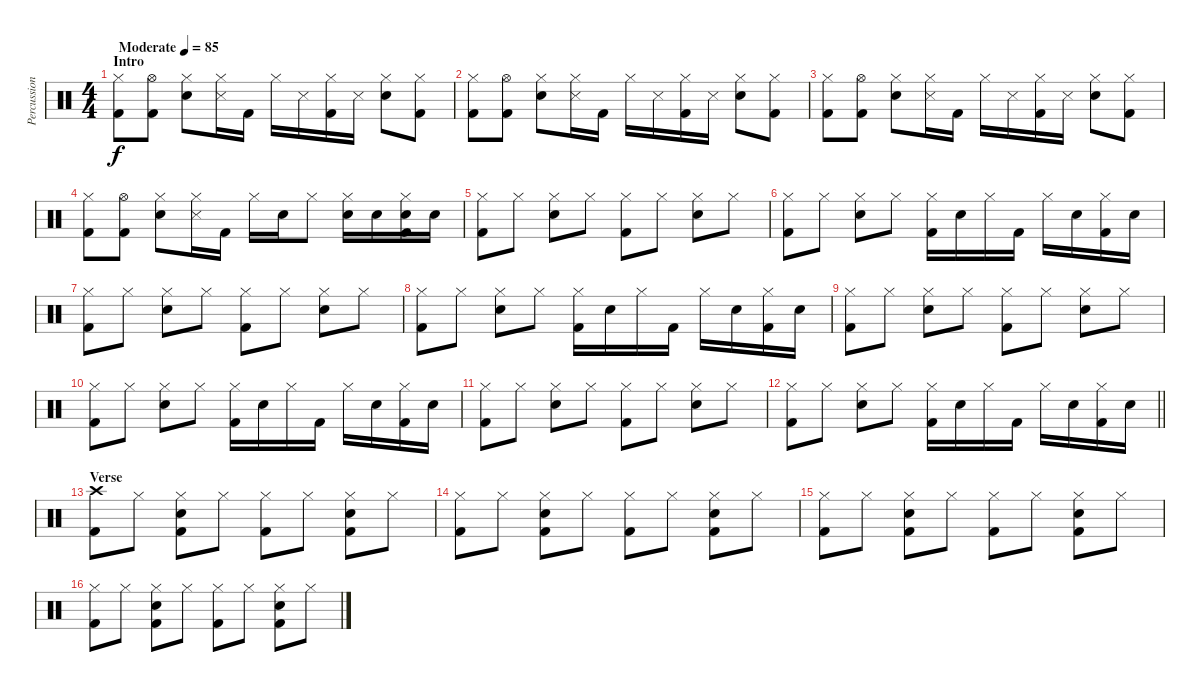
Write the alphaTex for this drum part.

\track ("Percussion" "Percussion") {instrument percussion}
\staff {score}
\articulation defaults
\ts (4 4)
\section ("" "Intro")
\tempo (85 "Moderate")
\clef neutral
\ks c
("Hi-Hat (closed)" "Kick (hit) 2").8{dy f} ("Hi-Hat (open)" "Kick (hit) 2").8 ("Hi-Hat (closed)" "Snare (hit) 2").8 ("Hi-Hat (closed)" "Snare (side stick) 3").16 "Kick (hit) 2".16 "Hi-Hat (closed)".16 "Snare (side stick) 3".16 ("Hi-Hat (closed)" "Kick (hit) 2").16 "Snare (side stick) 3".16 ("Hi-Hat (closed)" "Snare (hit) 2").8 ("Hi-Hat (closed)" "Kick (hit) 2").8 |
("Hi-Hat (closed)" "Kick (hit) 2").8 ("Hi-Hat (open)" "Kick (hit) 2").8 ("Hi-Hat (closed)" "Snare (hit) 2").8 ("Hi-Hat (closed)" "Snare (side stick) 3").16 "Kick (hit) 2".16 "Hi-Hat (closed)".16 "Snare (side stick) 3".16 ("Hi-Hat (closed)" "Kick (hit) 2").16 "Snare (side stick) 3".16 ("Hi-Hat (closed)" "Snare (hit) 2").8 ("Hi-Hat (closed)" "Kick (hit) 2").8 |
("Hi-Hat (closed)" "Kick (hit) 2").8 ("Hi-Hat (open)" "Kick (hit) 2").8 ("Hi-Hat (closed)" "Snare (hit) 2").8 ("Hi-Hat (closed)" "Snare (side stick) 3").16 "Kick (hit) 2".16 "Hi-Hat (closed)".16 "Snare (side stick) 3".16 ("Hi-Hat (closed)" "Kick (hit) 2").16 "Snare (side stick) 3".16 ("Hi-Hat (closed)" "Snare (hit) 2").8 ("Hi-Hat (closed)" "Kick (hit) 2").8 |
("Hi-Hat (closed)" "Kick (hit) 2").8 ("Hi-Hat (open)" "Kick (hit) 2").8 ("Hi-Hat (closed)" "Snare (hit) 2").8 ("Hi-Hat (closed)" "Snare (side stick) 3").16 "Kick (hit) 2".16 "Hi-Hat (closed)".16 "Electric Snare (hit)".16 "Hi-Hat (closed)".8 ("Hi-Hat (closed)" "Electric Snare (hit)").16 "Electric Snare (hit)".16 ("Hi-Hat (closed)" "Electric Snare (hit)" "Kick (hit) 2").16 "Electric Snare (hit)".16 |
("Hi-Hat (closed)" "Kick (hit) 2").8 "Hi-Hat (closed)".8 ("Hi-Hat (closed)" "Electric Snare (hit)").8 "Hi-Hat (closed)".8 ("Hi-Hat (closed)" "Kick (hit) 2").8 "Hi-Hat (closed)".8 ("Hi-Hat (closed)" "Electric Snare (hit)").8 "Hi-Hat (closed)".8 |
("Hi-Hat (closed)" "Kick (hit) 2").8 "Hi-Hat (closed)".8 ("Hi-Hat (closed)" "Electric Snare (hit)").8 "Hi-Hat (closed)".8 ("Hi-Hat (closed)" "Kick (hit) 2").16 "Electric Snare (hit)".16 "Hi-Hat (closed)".16 "Kick (hit) 2".16 "Hi-Hat (closed)".16 "Electric Snare (hit)".16 ("Hi-Hat (closed)" "Kick (hit) 2").16 "Electric Snare (hit)".16 |
("Hi-Hat (closed)" "Kick (hit) 2").8 "Hi-Hat (closed)".8 ("Hi-Hat (closed)" "Electric Snare (hit)").8 "Hi-Hat (closed)".8 ("Hi-Hat (closed)" "Kick (hit) 2").8 "Hi-Hat (closed)".8 ("Hi-Hat (closed)" "Electric Snare (hit)").8 "Hi-Hat (closed)".8 |
("Hi-Hat (closed)" "Kick (hit) 2").8 "Hi-Hat (closed)".8 ("Hi-Hat (closed)" "Electric Snare (hit)").8 "Hi-Hat (closed)".8 ("Hi-Hat (closed)" "Kick (hit) 2").16 "Electric Snare (hit)".16 "Hi-Hat (closed)".16 "Kick (hit) 2".16 "Hi-Hat (closed)".16 "Electric Snare (hit)".16 ("Hi-Hat (closed)" "Kick (hit) 2").16 "Electric Snare (hit)".16 |
("Hi-Hat (closed)" "Kick (hit) 2").8 "Hi-Hat (closed)".8 ("Hi-Hat (closed)" "Electric Snare (hit)").8 "Hi-Hat (closed)".8 ("Hi-Hat (closed)" "Kick (hit) 2").8 "Hi-Hat (closed)".8 ("Hi-Hat (closed)" "Electric Snare (hit)").8 "Hi-Hat (closed)".8 |
("Hi-Hat (closed)" "Kick (hit) 2").8 "Hi-Hat (closed)".8 ("Hi-Hat (closed)" "Electric Snare (hit)").8 "Hi-Hat (closed)".8 ("Hi-Hat (closed)" "Kick (hit) 2").16 "Electric Snare (hit)".16 "Hi-Hat (closed)".16 "Kick (hit) 2".16 "Hi-Hat (closed)".16 "Electric Snare (hit)".16 ("Hi-Hat (closed)" "Kick (hit) 2").16 "Electric Snare (hit)".16 |
("Hi-Hat (closed)" "Kick (hit) 2").8 "Hi-Hat (closed)".8 ("Hi-Hat (closed)" "Electric Snare (hit)").8 "Hi-Hat (closed)".8 ("Hi-Hat (closed)" "Kick (hit) 2").8 "Hi-Hat (closed)".8 ("Hi-Hat (closed)" "Electric Snare (hit)").8 "Hi-Hat (closed)".8 |
\barLineRight lightlight
("Hi-Hat (closed)" "Kick (hit) 2").8 "Hi-Hat (closed)".8 ("Hi-Hat (closed)" "Electric Snare (hit)").8 "Hi-Hat (closed)".8 ("Hi-Hat (closed)" "Kick (hit) 2").16 "Electric Snare (hit)".16 "Hi-Hat (closed)".16 "Kick (hit) 2".16 "Hi-Hat (closed)".16 "Electric Snare (hit)".16 ("Hi-Hat (closed)" "Kick (hit) 2").16 "Electric Snare (hit)".16 |
\section ("" "Verse")
("Crash high (hit)" "Kick (hit) 2").8 "Hi-Hat (closed)".8 ("Hi-Hat (closed)" "Electric Snare (hit)" "Kick (hit) 2").8 "Hi-Hat (closed)".8 ("Hi-Hat (closed)" "Kick (hit) 2").8 "Hi-Hat (closed)".8 ("Hi-Hat (closed)" "Electric Snare (hit)" "Kick (hit) 2").8 "Hi-Hat (closed)".8 |
("Hi-Hat (closed)" "Kick (hit) 2").8 "Hi-Hat (closed)".8 ("Hi-Hat (closed)" "Electric Snare (hit)" "Kick (hit) 2").8 "Hi-Hat (closed)".8 ("Hi-Hat (closed)" "Kick (hit) 2").8 "Hi-Hat (closed)".8 ("Hi-Hat (closed)" "Electric Snare (hit)" "Kick (hit) 2").8 "Hi-Hat (closed)".8 |
("Hi-Hat (closed)" "Kick (hit) 2").8 "Hi-Hat (closed)".8 ("Hi-Hat (closed)" "Electric Snare (hit)" "Kick (hit) 2").8 "Hi-Hat (closed)".8 ("Hi-Hat (closed)" "Kick (hit) 2").8 "Hi-Hat (closed)".8 ("Hi-Hat (closed)" "Electric Snare (hit)" "Kick (hit) 2").8 "Hi-Hat (closed)".8 |
("Hi-Hat (closed)" "Kick (hit) 2").8 "Hi-Hat (closed)".8 ("Hi-Hat (closed)" "Electric Snare (hit)" "Kick (hit) 2").8 "Hi-Hat (closed)".8 ("Hi-Hat (closed)" "Kick (hit) 2").8 "Hi-Hat (closed)".8 ("Hi-Hat (closed)" "Electric Snare (hit)" "Kick (hit) 2").8 "Hi-Hat (closed)".8
